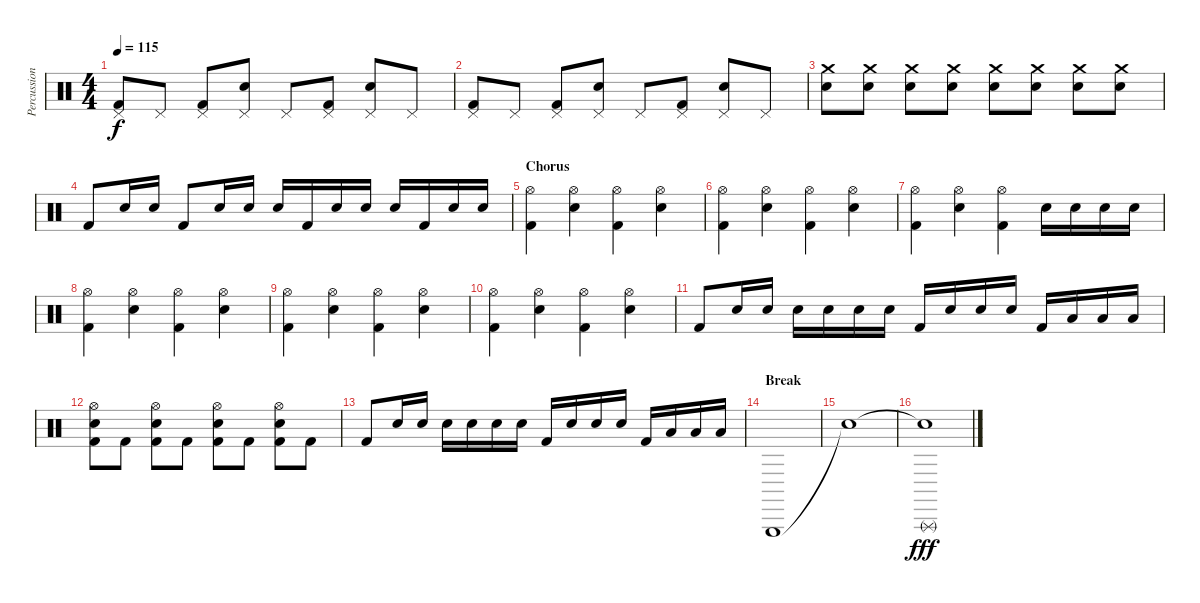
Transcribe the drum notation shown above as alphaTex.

\track ("Percussioni" "Percussion") {instrument percussion}
\staff {score}
\articulation defaults
\ts (4 4)
\tempo 115
\clef neutral
\ks c
("Pedal Hi-Hat (hit)" "Kick (hit) 2").8{dy f} "Pedal Hi-Hat (hit)".8 ("Pedal Hi-Hat (hit)" "Kick (hit) 2").8 ("Pedal Hi-Hat (hit)" "Snare (hit) 2").8 "Pedal Hi-Hat (hit)".8 ("Pedal Hi-Hat (hit)" "Kick (hit) 2").8 ("Pedal Hi-Hat (hit)" "Snare (hit) 2").8 "Pedal Hi-Hat (hit)".8 |
("Pedal Hi-Hat (hit)" "Kick (hit) 2").8 "Pedal Hi-Hat (hit)".8 ("Pedal Hi-Hat (hit)" "Kick (hit) 2").8 ("Pedal Hi-Hat (hit)" "Snare (hit) 2").8 "Pedal Hi-Hat (hit)".8 ("Pedal Hi-Hat (hit)" "Kick (hit) 2").8 ("Pedal Hi-Hat (hit)" "Snare (hit) 2").8 "Pedal Hi-Hat (hit)".8 |
("Crash medium (hit)" "Snare (hit) 2").8 ("Crash medium (hit)" "Snare (hit) 2").8 ("Crash medium (hit)" "Snare (hit) 2").8 ("Crash medium (hit)" "Snare (hit) 2").8 ("Crash medium (hit)" "Snare (hit) 2").8 ("Crash medium (hit)" "Snare (hit) 2").8 ("Crash medium (hit)" "Snare (hit) 2").8 ("Crash medium (hit)" "Snare (hit) 2").8 |
"Kick (hit) 2".8 "Snare (hit) 2".16 "Snare (hit) 2".16 "Kick (hit) 2".8 "Snare (hit) 2".16 "Snare (hit) 2".16 "Snare (hit) 2".16 "Kick (hit) 2".16 "Snare (hit) 2".16 "Snare (hit) 2".16 "Snare (hit) 2".16 "Kick (hit) 2".16 "Snare (hit) 2".16 "Snare (hit) 2".16 |
\section ("" "Chorus")
("Hi-Hat (open)" "Kick (hit) 2").4 ("Hi-Hat (open)" "Snare (hit) 2").4 ("Hi-Hat (open)" "Kick (hit) 2").4 ("Hi-Hat (open)" "Snare (hit) 2").4 |
("Hi-Hat (open)" "Kick (hit) 2").4 ("Hi-Hat (open)" "Snare (hit) 2").4 ("Hi-Hat (open)" "Kick (hit) 2").4 ("Hi-Hat (open)" "Snare (hit) 2").4 |
("Hi-Hat (open)" "Kick (hit) 2").4 ("Hi-Hat (open)" "Snare (hit) 2").4 ("Hi-Hat (open)" "Kick (hit) 2").4 "Snare (hit) 2".16 "Snare (hit) 2".16 "Snare (hit) 2".16 "Snare (hit) 2".16 |
("Hi-Hat (open)" "Kick (hit) 2").4 ("Hi-Hat (open)" "Snare (hit) 2").4 ("Hi-Hat (open)" "Kick (hit) 2").4 ("Hi-Hat (open)" "Snare (hit) 2").4 |
("Hi-Hat (open)" "Kick (hit) 2").4 ("Hi-Hat (open)" "Snare (hit) 2").4 ("Hi-Hat (open)" "Kick (hit) 2").4 ("Hi-Hat (open)" "Snare (hit) 2").4 |
("Hi-Hat (open)" "Kick (hit) 2").4 ("Hi-Hat (open)" "Snare (hit) 2").4 ("Hi-Hat (open)" "Kick (hit) 2").4 ("Hi-Hat (open)" "Snare (hit) 2").4 |
"Kick (hit) 2".8 "Snare (hit) 2".16 "Snare (hit) 2".16 "Snare (hit) 2".16 "Snare (hit) 2".16 "Snare (hit) 2".16 "Snare (hit) 2".16 "Kick (hit) 2".16 "Snare (hit) 2".16 "Snare (hit) 2".16 "Snare (hit) 2".16 "Kick (hit) 2".16 "Low Tom (hit)".16 "Low Tom (hit)".16 "Low Tom (hit)".16 |
("Hi-Hat (open)" "Snare (hit) 2" "Kick (hit) 2").8 "Kick (hit) 2".8 ("Hi-Hat (open)" "Snare (hit) 2" "Kick (hit) 2").8 "Kick (hit) 2".8 ("Hi-Hat (open)" "Snare (hit) 2" "Kick (hit) 2").8 "Kick (hit) 2".8 ("Hi-Hat (open)" "Snare (hit) 2" "Kick (hit) 2").8 "Kick (hit) 2".8 |
"Kick (hit) 2".8 "Snare (hit) 2".16 "Snare (hit) 2".16 "Snare (hit) 2".16 "Snare (hit) 2".16 "Snare (hit) 2".16 "Snare (hit) 2".16 "Kick (hit) 2".16 "Snare (hit) 2".16 "Snare (hit) 2".16 "Snare (hit) 2".16 "Kick (hit) 2".16 "Low Tom (hit)".16 "Low Tom (hit)".16 "Low Tom (hit)".16 |
\section ("" "Break")
"Triangle (hit)".1 |
"Snare (hit)"{t}.1 |
("Snare (hit)"{t} "Triangle (rnute)").1{dy fff}
